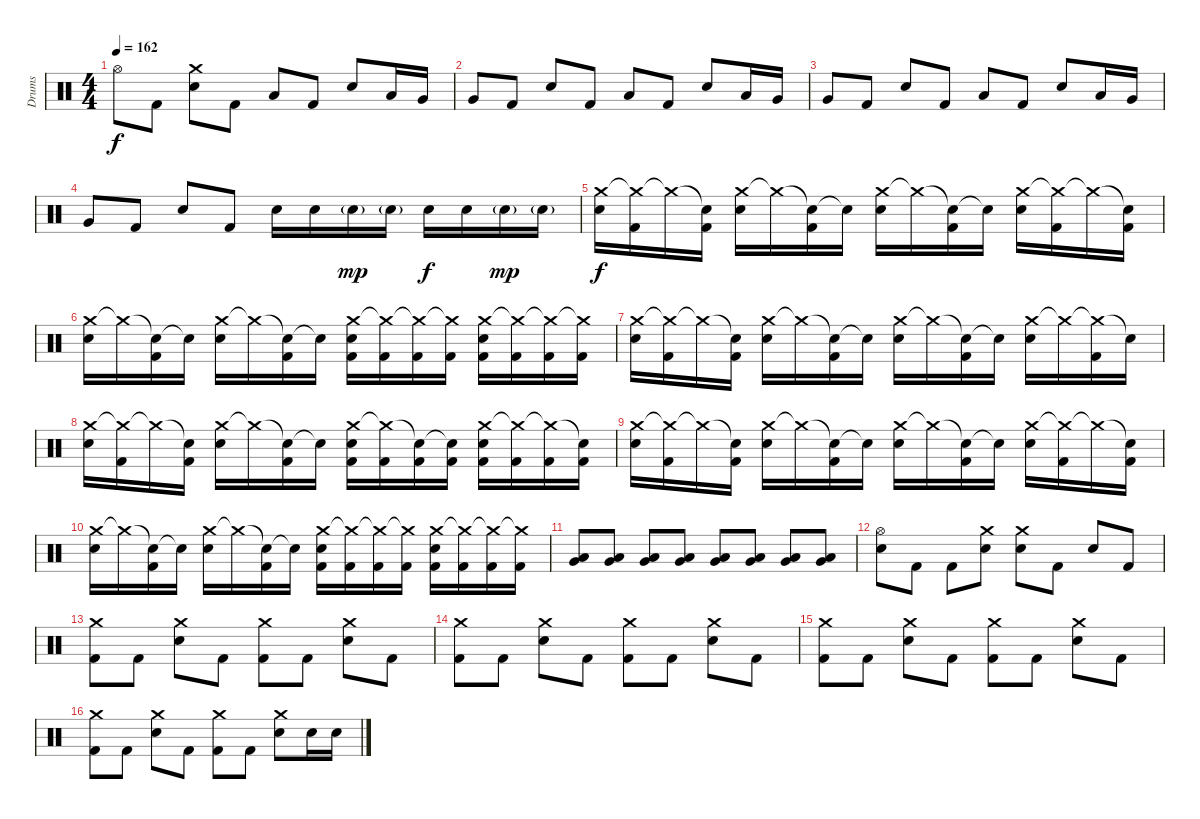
\track ("Drums" "Drums") {instrument percussion}
\staff {score}
\articulation defaults
\ts (4 4)
\tempo 162
\clef neutral
\ks c "Hi-Hat (open)".8{dy f} "Kick (hit) 2".8
("Crash medium (hit)" "Electric Snare (hit)").8 "Kick (hit) 2".8 "Low Floor Tom (hit)".8 "Kick (hit) 2".8 "Electric Snare (hit)".8 "Low Tom (hit)".16 "Very Low Tom (hit)".16 |
"Very Low Tom (hit)".8 "Kick (hit) 2".8 "Electric Snare (hit)".8 "Kick (hit) 2".8 "Low Floor Tom (hit)".8 "Kick (hit) 2".8 "Electric Snare (hit)".8 "Low Tom (hit)".16 "Very Low Tom (hit)".16 |
"Very Low Tom (hit)".8 "Kick (hit) 2".8 "Electric Snare (hit)".8 "Kick (hit) 2".8 "Low Floor Tom (hit)".8 "Kick (hit) 2".8 "Electric Snare (hit)".8 "Low Tom (hit)".16 "Very Low Tom (hit)".16 |
"Very Low Tom (hit)".8 "Kick (hit) 2".8 "Electric Snare (hit)".8 "Kick (hit) 2".8 "Electric Snare (hit)".16 "Electric Snare (hit)".16 "Snare (hit) 2"{g}.16{dy mp} "Snare (hit) 2"{g}.16 "Electric Snare (hit)".16{dy f} "Electric Snare (hit)".16 "Snare (hit) 2"{g}.16{dy mp} "Snare (hit) 2"{g}.16 |
("Crash medium (hit)" "Electric Snare (hit)").16{dy f} ("Crash medium (hit)"{t} "Kick (hit) 2").16 "Crash medium (hit)"{t}.16 ("Snare (hit)"{t} "Kick (hit) 2").16 ("Crash medium (hit)" "Electric Snare (hit)").16 "Crash medium (hit)"{t}.16 ("Snare (hit)"{t} "Kick (hit) 2").16 "Snare (hit)"{t}.16 ("Crash medium (hit)" "Electric Snare (hit)").16 "Crash medium (hit)"{t}.16 ("Snare (hit)"{t} "Kick (hit) 2").16 "Snare (hit)"{t}.16 ("Crash medium (hit)" "Electric Snare (hit)").16 ("Crash medium (hit)"{t} "Kick (hit) 2").16 "Crash medium (hit)"{t}.16 ("Snare (hit)"{t} "Kick (hit) 2").16 |
("Crash medium (hit)" "Electric Snare (hit)").16 "Crash medium (hit)"{t}.16 ("Snare (hit)"{t} "Kick (hit) 2").16 "Snare (hit)"{t}.16 ("Crash medium (hit)" "Electric Snare (hit)").16 "Crash medium (hit)"{t}.16 ("Snare (hit)"{t} "Kick (hit) 2").16 "Snare (hit)"{t}.16 ("Crash medium (hit)" "Electric Snare (hit)" "Kick (hit) 2").16 ("Crash medium (hit)"{t} "Kick (hit) 2").16 ("Crash medium (hit)"{t} "Kick (hit) 2").16 ("Crash medium (hit)"{t} "Kick (hit) 2").16 ("Crash medium (hit)" "Electric Snare (hit)" "Kick (hit) 2").16 ("Crash medium (hit)"{t} "Kick (hit) 2").16 ("Crash medium (hit)"{t} "Kick (hit) 2").16 ("Crash medium (hit)"{t} "Kick (hit) 2").16 |
("Crash medium (hit)" "Electric Snare (hit)").16 ("Crash medium (hit)"{t} "Kick (hit) 2").16 "Crash medium (hit)"{t}.16 ("Snare (hit)"{t} "Kick (hit) 2").16 ("Crash medium (hit)" "Electric Snare (hit)").16 "Crash medium (hit)"{t}.16 ("Snare (hit)"{t} "Kick (hit) 2").16 "Snare (hit)"{t}.16 ("Crash medium (hit)" "Electric Snare (hit)").16 "Crash medium (hit)"{t}.16 ("Snare (hit)"{t} "Kick (hit) 2").16 "Snare (hit)"{t}.16 ("Crash medium (hit)" "Electric Snare (hit)").16 "Crash medium (hit)"{t}.16 ("Crash medium (hit)"{t} "Kick (hit) 2").16 "Snare (hit)"{t}.16 |
("Crash medium (hit)" "Electric Snare (hit)").16 ("Crash medium (hit)"{t} "Kick (hit) 2").16 "Crash medium (hit)"{t}.16 ("Snare (hit)"{t} "Kick (hit) 2").16 ("Crash medium (hit)" "Electric Snare (hit)").16 "Crash medium (hit)"{t}.16 ("Snare (hit)"{t} "Kick (hit) 2").16 "Snare (hit)"{t}.16 ("Crash medium (hit)" "Electric Snare (hit)" "Kick (hit) 2").16 ("Crash medium (hit)"{t} "Kick (hit) 2").16 ("Snare (hit)"{t} "Kick (hit) 2").16 ("Snare (hit)"{t} "Kick (hit) 2").16 ("Crash medium (hit)" "Electric Snare (hit)" "Kick (hit) 2").16 ("Crash medium (hit)"{t} "Kick (hit) 2").16 ("Crash medium (hit)"{t} "Kick (hit) 2").16 ("Snare (hit)"{t} "Kick (hit) 2").16 |
("Crash medium (hit)" "Electric Snare (hit)").16 ("Crash medium (hit)"{t} "Kick (hit) 2").16 "Crash medium (hit)"{t}.16 ("Snare (hit)"{t} "Kick (hit) 2").16 ("Crash medium (hit)" "Electric Snare (hit)").16 "Crash medium (hit)"{t}.16 ("Snare (hit)"{t} "Kick (hit) 2").16 "Snare (hit)"{t}.16 ("Crash medium (hit)" "Electric Snare (hit)").16 "Crash medium (hit)"{t}.16 ("Snare (hit)"{t} "Kick (hit) 2").16 "Snare (hit)"{t}.16 ("Crash medium (hit)" "Electric Snare (hit)").16 ("Crash medium (hit)"{t} "Kick (hit) 2").16 "Crash medium (hit)"{t}.16 ("Snare (hit)"{t} "Kick (hit) 2").16 |
("Crash medium (hit)" "Electric Snare (hit)").16 "Crash medium (hit)"{t}.16 ("Snare (hit)"{t} "Kick (hit) 2").16 "Snare (hit)"{t}.16 ("Crash medium (hit)" "Electric Snare (hit)").16 "Crash medium (hit)"{t}.16 ("Snare (hit)"{t} "Kick (hit) 2").16 "Snare (hit)"{t}.16 ("Crash medium (hit)" "Electric Snare (hit)" "Kick (hit) 2").16 ("Crash medium (hit)"{t} "Kick (hit) 2").16 ("Crash medium (hit)"{t} "Kick (hit) 2").16 ("Crash medium (hit)"{t} "Kick (hit) 2").16 ("Crash medium (hit)" "Electric Snare (hit)" "Kick (hit) 2").16 ("Crash medium (hit)"{t} "Kick (hit) 2").16 ("Crash medium (hit)"{t} "Kick (hit) 2").16 ("Crash medium (hit)"{t} "Kick (hit) 2").16 |
("Very Low Tom (hit)" "Low Tom (hit)").8 ("Very Low Tom (hit)" "Low Tom (hit)").8 ("Very Low Tom (hit)" "Low Tom (hit)").8 ("Very Low Tom (hit)" "Low Tom (hit)").8 ("Very Low Tom (hit)" "Low Tom (hit)").8 ("Very Low Tom (hit)" "Low Tom (hit)").8 ("Very Low Tom (hit)" "Low Tom (hit)").8 ("Very Low Tom (hit)" "Low Tom (hit)").8 |
("Hi-Hat (open)" "Electric Snare (hit)").8 "Kick (hit) 2".8 "Kick (hit) 2".8 ("Crash medium (hit)" "Electric Snare (hit)").8 ("Crash medium (hit)" "Electric Snare (hit)").8 "Kick (hit) 2".8 "Electric Snare (hit)".8 "Kick (hit) 2".8 |
("Crash medium (hit)" "Kick (hit) 2").8 "Kick (hit) 2".8 ("Crash medium (hit)" "Electric Snare (hit)").8 "Kick (hit) 2".8 ("Crash medium (hit)" "Kick (hit) 2").8 "Kick (hit) 2".8 ("Crash medium (hit)" "Electric Snare (hit)").8 "Kick (hit) 2".8 |
("Crash medium (hit)" "Kick (hit) 2").8 "Kick (hit) 2".8 ("Crash medium (hit)" "Electric Snare (hit)").8 "Kick (hit) 2".8 ("Crash medium (hit)" "Kick (hit) 2").8 "Kick (hit) 2".8 ("Crash medium (hit)" "Electric Snare (hit)").8 "Kick (hit) 2".8 |
("Crash medium (hit)" "Kick (hit) 2").8 "Kick (hit) 2".8 ("Crash medium (hit)" "Electric Snare (hit)").8 "Kick (hit) 2".8 ("Crash medium (hit)" "Kick (hit) 2").8 "Kick (hit) 2".8 ("Crash medium (hit)" "Electric Snare (hit)").8 "Kick (hit) 2".8 |
("Crash medium (hit)" "Kick (hit) 2").8 "Kick (hit) 2".8 ("Crash medium (hit)" "Electric Snare (hit)").8 "Kick (hit) 2".8 ("Crash medium (hit)" "Kick (hit) 2").8 "Kick (hit) 2".8 ("Crash medium (hit)" "Electric Snare (hit)").8 "Electric Snare (hit)".16 "Electric Snare (hit)".16
